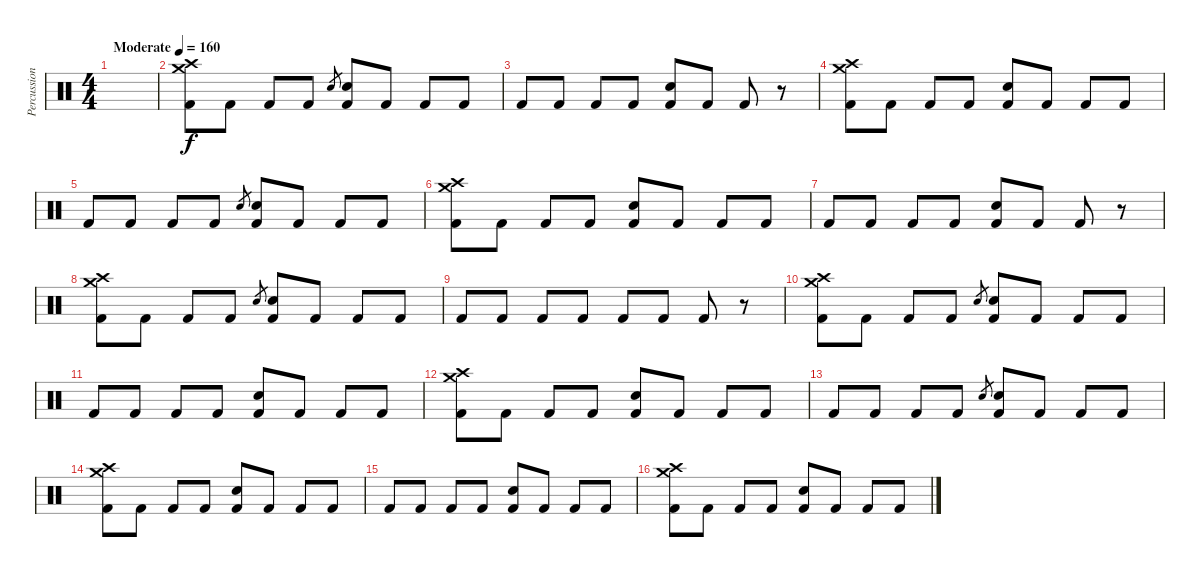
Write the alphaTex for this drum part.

\track ("Percussion" "Percussion") {instrument percussion}
\staff {score}
\articulation defaults
\ts (4 4)
\tempo (160 "Moderate")
\clef neutral
\ks c
|
("Crash medium (hit)" "Crash high (hit)" "Kick (hit) 2").8 "Kick (hit) 2".8 "Kick (hit) 2".8 "Kick (hit) 2".8 "Electric Snare (hit)".8{gr} ("Electric Snare (hit)" "Kick (hit) 2").8 "Kick (hit) 2".8 "Kick (hit) 2".8 "Kick (hit) 2".8 |
"Kick (hit) 2".8 "Kick (hit) 2".8 "Kick (hit) 2".8 "Kick (hit) 2".8 ("Electric Snare (hit)" "Kick (hit) 2").8 "Kick (hit) 2".8 "Kick (hit) 2".8 r.8 |
("Crash medium (hit)" "Crash high (hit)" "Kick (hit) 2").8 "Kick (hit) 2".8 "Kick (hit) 2".8 "Kick (hit) 2".8 ("Electric Snare (hit)" "Kick (hit) 2").8 "Kick (hit) 2".8 "Kick (hit) 2".8 "Kick (hit) 2".8 |
"Kick (hit) 2".8 "Kick (hit) 2".8 "Kick (hit) 2".8 "Kick (hit) 2".8 "Electric Snare (hit)".8{gr} ("Electric Snare (hit)" "Kick (hit) 2").8 "Kick (hit) 2".8 "Kick (hit) 2".8 "Kick (hit) 2".8 |
("Crash medium (hit)" "Crash high (hit)" "Kick (hit) 2").8 "Kick (hit) 2".8 "Kick (hit) 2".8 "Kick (hit) 2".8 ("Electric Snare (hit)" "Kick (hit) 2").8 "Kick (hit) 2".8 "Kick (hit) 2".8 "Kick (hit) 2".8 |
"Kick (hit) 2".8 "Kick (hit) 2".8 "Kick (hit) 2".8 "Kick (hit) 2".8 ("Electric Snare (hit)" "Kick (hit) 2").8 "Kick (hit) 2".8 "Kick (hit) 2".8 r.8 |
("Crash medium (hit)" "Crash high (hit)" "Kick (hit) 2").8 "Kick (hit) 2".8 "Kick (hit) 2".8 "Kick (hit) 2".8 "Electric Snare (hit)".8{gr} ("Electric Snare (hit)" "Kick (hit) 2").8 "Kick (hit) 2".8 "Kick (hit) 2".8 "Kick (hit) 2".8 |
"Kick (hit) 2".8 "Kick (hit) 2".8 "Kick (hit) 2".8 "Kick (hit) 2".8 "Kick (hit) 2".8 "Kick (hit) 2".8 "Kick (hit) 2".8 r.8 |
("Crash medium (hit)" "Crash high (hit)" "Kick (hit) 2").8 "Kick (hit) 2".8 "Kick (hit) 2".8 "Kick (hit) 2".8 "Electric Snare (hit)".8{gr} ("Electric Snare (hit)" "Kick (hit) 2").8 "Kick (hit) 2".8 "Kick (hit) 2".8 "Kick (hit) 2".8 |
"Kick (hit) 2".8 "Kick (hit) 2".8 "Kick (hit) 2".8 "Kick (hit) 2".8 ("Electric Snare (hit)" "Kick (hit) 2").8 "Kick (hit) 2".8 "Kick (hit) 2".8 "Kick (hit) 2".8 |
("Crash medium (hit)" "Crash high (hit)" "Kick (hit) 2").8 "Kick (hit) 2".8 "Kick (hit) 2".8 "Kick (hit) 2".8 ("Electric Snare (hit)" "Kick (hit) 2").8 "Kick (hit) 2".8 "Kick (hit) 2".8 "Kick (hit) 2".8 |
"Kick (hit) 2".8 "Kick (hit) 2".8 "Kick (hit) 2".8 "Kick (hit) 2".8 "Electric Snare (hit)".8{gr} ("Electric Snare (hit)" "Kick (hit) 2").8 "Kick (hit) 2".8 "Kick (hit) 2".8 "Kick (hit) 2".8 |
("Crash medium (hit)" "Crash high (hit)" "Kick (hit) 2").8 "Kick (hit) 2".8 "Kick (hit) 2".8 "Kick (hit) 2".8 ("Electric Snare (hit)" "Kick (hit) 2").8 "Kick (hit) 2".8 "Kick (hit) 2".8 "Kick (hit) 2".8 |
"Kick (hit) 2".8 "Kick (hit) 2".8 "Kick (hit) 2".8 "Kick (hit) 2".8 ("Electric Snare (hit)" "Kick (hit) 2").8 "Kick (hit) 2".8 "Kick (hit) 2".8 "Kick (hit) 2".8 |
("Crash medium (hit)" "Crash high (hit)" "Kick (hit) 2").8 "Kick (hit) 2".8 "Kick (hit) 2".8 "Kick (hit) 2".8 ("Electric Snare (hit)" "Kick (hit) 2").8 "Kick (hit) 2".8 "Kick (hit) 2".8 "Kick (hit) 2".8
